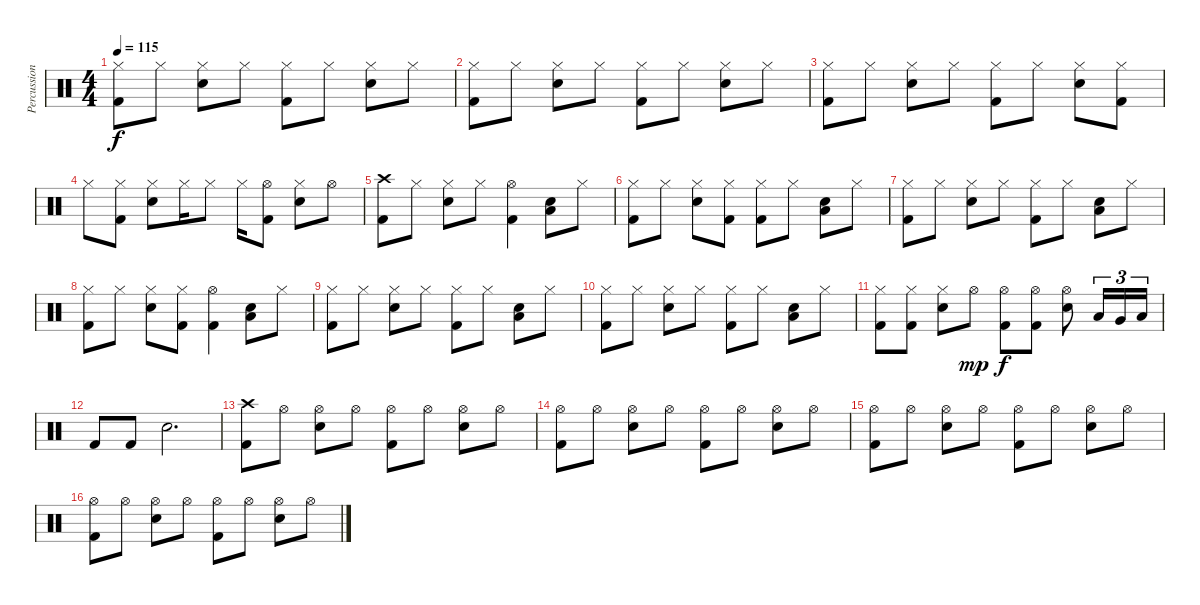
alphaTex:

\track ("Percussion" "Percussion") {instrument percussion}
\staff {score}
\articulation defaults
\ts (4 4)
\tempo 115
\clef neutral
\ks c
("Hi-Hat (closed)" "Kick (hit) 2").8{dy f} "Hi-Hat (closed)".8 ("Hi-Hat (closed)" "Electric Snare (hit)").8 "Hi-Hat (closed)".8 ("Hi-Hat (closed)" "Kick (hit) 2").8 "Hi-Hat (closed)".8 ("Hi-Hat (closed)" "Electric Snare (hit)").8 "Hi-Hat (closed)".8 |
("Hi-Hat (closed)" "Kick (hit) 2").8 "Hi-Hat (closed)".8 ("Hi-Hat (closed)" "Electric Snare (hit)").8 "Hi-Hat (closed)".8 ("Hi-Hat (closed)" "Kick (hit) 2").8 "Hi-Hat (closed)".8 ("Hi-Hat (closed)" "Electric Snare (hit)").8 "Hi-Hat (closed)".8 |
("Hi-Hat (closed)" "Kick (hit) 2").8 "Hi-Hat (closed)".8 ("Hi-Hat (closed)" "Electric Snare (hit)").8 "Hi-Hat (closed)".8 ("Hi-Hat (closed)" "Kick (hit) 2").8 "Hi-Hat (closed)".8 ("Hi-Hat (closed)" "Electric Snare (hit)").8 ("Hi-Hat (closed)" "Kick (hit) 2").8 |
"Hi-Hat (closed)".8 ("Hi-Hat (closed)" "Kick (hit) 2").8 ("Hi-Hat (closed)" "Electric Snare (hit)").8 "Hi-Hat (closed)".16 "Hi-Hat (closed)".8 "Hi-Hat (closed)".16 ("Hi-Hat (open)" "Kick (hit) 2").8 ("Hi-Hat (closed)" "Electric Snare (hit)").8 "Hi-Hat (open)".8 |
("Crash high (hit)" "Kick (hit) 2").8 "Hi-Hat (closed)".8 ("Hi-Hat (closed)" "Electric Snare (hit)").8 "Hi-Hat (closed)".8 ("Hi-Hat (open)" "Kick (hit) 2").4 ("Low Tom (hit)" "Electric Snare (hit)").8 "Hi-Hat (closed)".8 |
("Hi-Hat (closed)" "Kick (hit) 2").8 "Hi-Hat (closed)".8 ("Hi-Hat (closed)" "Electric Snare (hit)").8 ("Hi-Hat (closed)" "Kick (hit) 2").8 ("Hi-Hat (closed)" "Kick (hit) 2").8 "Hi-Hat (closed)".8 ("Low Tom (hit)" "Electric Snare (hit)").8 "Hi-Hat (closed)".8 |
("Hi-Hat (closed)" "Kick (hit) 2").8 "Hi-Hat (closed)".8 ("Hi-Hat (closed)" "Electric Snare (hit)").8 "Hi-Hat (closed)".8 ("Hi-Hat (closed)" "Kick (hit) 2").8 "Hi-Hat (closed)".8 ("Low Tom (hit)" "Electric Snare (hit)").8 "Hi-Hat (closed)".8 |
("Hi-Hat (closed)" "Kick (hit) 2").8 "Hi-Hat (closed)".8 ("Hi-Hat (closed)" "Electric Snare (hit)").8 ("Hi-Hat (closed)" "Kick (hit) 2").8 ("Hi-Hat (open)" "Kick (hit) 2").4 ("Low Tom (hit)" "Electric Snare (hit)").8 "Hi-Hat (closed)".8 |
("Hi-Hat (closed)" "Kick (hit) 2").8 "Hi-Hat (closed)".8 ("Hi-Hat (closed)" "Electric Snare (hit)").8 "Hi-Hat (closed)".8 ("Hi-Hat (closed)" "Kick (hit) 2").8 "Hi-Hat (closed)".8 ("Low Tom (hit)" "Electric Snare (hit)").8 "Hi-Hat (closed)".8 |
("Hi-Hat (closed)" "Kick (hit) 2").8 "Hi-Hat (closed)".8 ("Hi-Hat (closed)" "Electric Snare (hit)").8 "Hi-Hat (closed)".8 ("Hi-Hat (closed)" "Kick (hit) 2").8 "Hi-Hat (closed)".8 ("Low Tom (hit)" "Electric Snare (hit)").8 "Hi-Hat (closed)".8 |
("Hi-Hat (closed)" "Kick (hit) 2").8 ("Hi-Hat (closed)" "Kick (hit) 2").8 ("Hi-Hat (closed)" "Electric Snare (hit)").8 "Hi-Hat (open)".8{dy mp} ("Hi-Hat (open)" "Kick (hit) 2").8{dy f} ("Hi-Hat (open)" "Kick (hit) 2").8 ("Hi-Hat (open)" "Electric Snare (hit)").8 "Low Tom (hit)".16{tu (3 2)} "Very Low Tom (hit)".16{tu (3 2)} "Low Floor Tom (hit)".16{tu (3 2)} |
"Kick (hit) 2".8 "Kick (hit) 2".8 "Electric Snare (hit)".2{d} |
("Crash high (hit)" "Kick (hit) 2").8 "Hi-Hat (open)".8 ("Hi-Hat (open)" "Electric Snare (hit)").8 "Hi-Hat (open)".8 ("Hi-Hat (open)" "Kick (hit) 2").8 "Hi-Hat (open)".8 ("Hi-Hat (open)" "Electric Snare (hit)").8 "Hi-Hat (open)".8 |
("Hi-Hat (open)" "Kick (hit) 2").8 "Hi-Hat (open)".8 ("Hi-Hat (open)" "Electric Snare (hit)").8 "Hi-Hat (open)".8 ("Hi-Hat (open)" "Kick (hit) 2").8 "Hi-Hat (open)".8 ("Hi-Hat (open)" "Electric Snare (hit)").8 "Hi-Hat (open)".8 |
("Hi-Hat (open)" "Kick (hit) 2").8 "Hi-Hat (open)".8 ("Hi-Hat (open)" "Electric Snare (hit)").8 "Hi-Hat (open)".8 ("Hi-Hat (open)" "Kick (hit) 2").8 "Hi-Hat (open)".8 ("Hi-Hat (open)" "Electric Snare (hit)").8 "Hi-Hat (open)".8 |
("Hi-Hat (open)" "Kick (hit) 2").8 "Hi-Hat (open)".8 ("Hi-Hat (open)" "Electric Snare (hit)").8 "Hi-Hat (open)".8 ("Hi-Hat (open)" "Kick (hit) 2").8 "Hi-Hat (open)".8 ("Hi-Hat (open)" "Electric Snare (hit)").8 "Hi-Hat (open)".8
